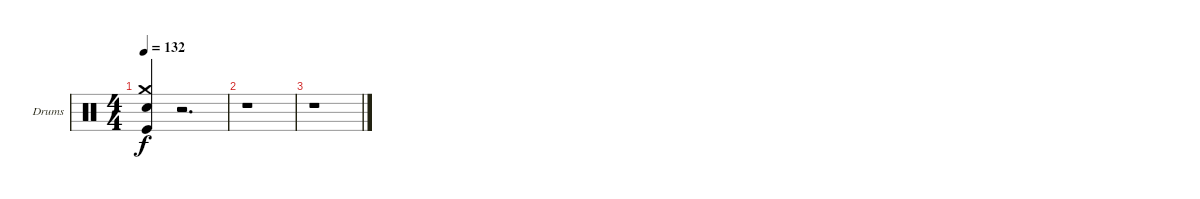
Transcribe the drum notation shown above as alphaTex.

\bracketExtendMode groupsimilarinstruments
\firstSystemTrackNameOrientation horizontal
\otherSystemsTrackNameOrientation horizontal
\track ("Drumkit" "Drums") {instrument percussion}
\staff {score}
\articulation defaults
\ts (4 4)
\tempo 132
\clef neutral
\ks c
("Kick (hit)" "Crash medium (hit)" "Snare (hit) 2").4{dy f} r.2{d} |
r.1 |
r.1
